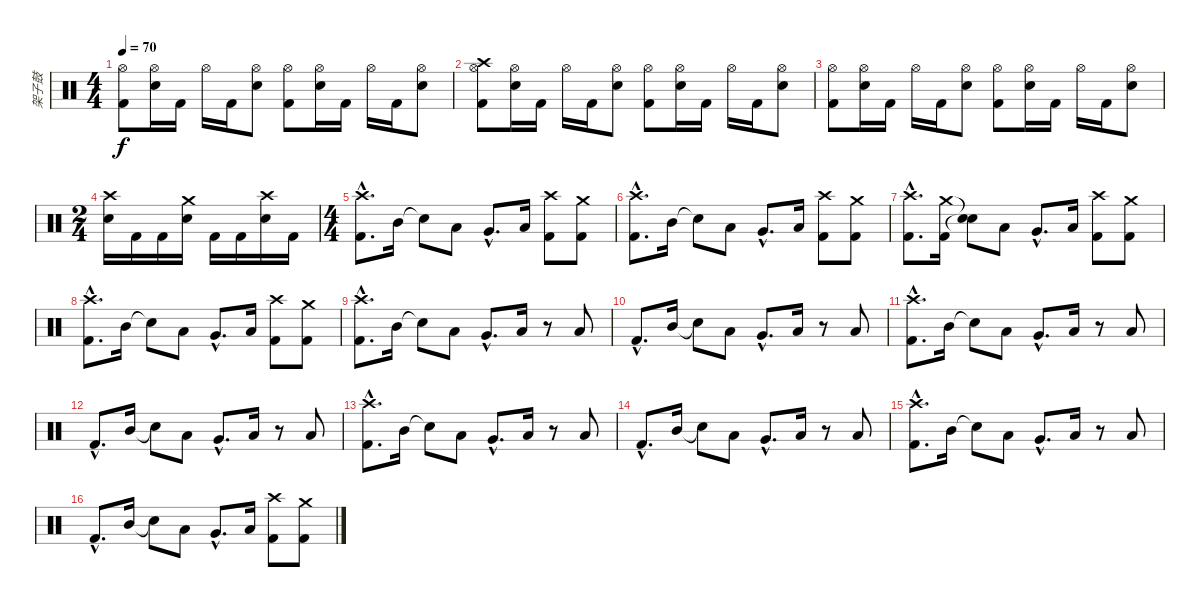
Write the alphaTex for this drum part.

\track ("架子鼓" "架子鼓") {instrument percussion}
\staff {score}
\articulation defaults
\ts (4 4)
\tempo 70
\clef neutral
\ks c
("Hi-Hat (open)" "Kick (hit) 2").8{dy f} ("Hi-Hat (open)" "Snare (hit) 2").16 "Kick (hit) 2".16 "Hi-Hat (open)".16 "Kick (hit) 2".16 ("Hi-Hat (open)" "Snare (hit) 2").8 ("Hi-Hat (open)" "Kick (hit) 2").8 ("Hi-Hat (open)" "Snare (hit) 2").16 "Kick (hit) 2".16 "Hi-Hat (open)".16 "Kick (hit) 2".16 ("Hi-Hat (open)" "Snare (hit) 2").8 |
("Crash high (hit)" "Hi-Hat (open)" "Kick (hit) 2").8 ("Hi-Hat (open)" "Snare (hit) 2").16 "Kick (hit) 2".16 "Hi-Hat (open)".16 "Kick (hit) 2".16 ("Hi-Hat (open)" "Snare (hit) 2").8 ("Hi-Hat (open)" "Kick (hit) 2").8 ("Hi-Hat (open)" "Snare (hit) 2").16 "Kick (hit) 2".16 "Hi-Hat (open)".16 "Kick (hit) 2".16 ("Hi-Hat (open)" "Snare (hit) 2").8 |
("Hi-Hat (open)" "Kick (hit) 2").8 ("Hi-Hat (open)" "Snare (hit) 2").16 "Kick (hit) 2".16 "Hi-Hat (open)".16 "Kick (hit) 2".16 ("Hi-Hat (open)" "Snare (hit) 2").8 ("Hi-Hat (open)" "Kick (hit) 2").8 ("Hi-Hat (open)" "Snare (hit) 2").16 "Kick (hit) 2".16 "Hi-Hat (open)".16 "Kick (hit) 2".16 ("Hi-Hat (open)" "Snare (hit) 2").8 |
\ts (2 4)
("Crash high (hit)" "Snare (hit) 2").16 "Kick (hit) 2".16 "Kick (hit) 2".16 ("Crash medium (hit)" "Snare (hit) 2").16 "Kick (hit) 2".16 "Kick (hit) 2".16 ("Crash high (hit)" "Snare (hit) 2").16 "Kick (hit) 2".16 |
\ts (4 4)
("Crash high (hit)"{hac} "Kick (hit) 2"{hac}).8{d} "Mid Tom (hit)".16 "Snare (hit)"{t}.8 "Low Tom (hit)".8 "Very Low Tom (hit)"{hac}.8{d} "Low Floor Tom (hit)".16 ("Crash high (hit)" "Kick (hit) 2").8 ("Crash medium (hit)" "Kick (hit) 2").8 |
("Crash high (hit)"{hac} "Kick (hit) 2"{hac}).8{d} "Mid Tom (hit)".16 "Snare (hit)"{t}.8 "Low Tom (hit)".8 "Very Low Tom (hit)"{hac}.8{d} "Low Floor Tom (hit)".16 ("Crash high (hit)" "Kick (hit) 2").8 ("Crash medium (hit)" "Kick (hit) 2").8 |
("Crash high (hit)"{hac} "Kick (hit) 2"{hac}).8{d} ("Crash medium (hit)" "Kick (hit) 2").16 ("Snare (hit)"{t} "Snare (hit)"{t}).8 "Low Tom (hit)".8 "Very Low Tom (hit)"{hac}.8{d} "Low Floor Tom (hit)".16 ("Crash high (hit)" "Kick (hit) 2").8 ("Crash medium (hit)" "Kick (hit) 2").8 |
("Crash high (hit)"{hac} "Kick (hit) 2"{hac}).8{d} "Mid Tom (hit)".16 "Snare (hit)"{t}.8 "Low Tom (hit)".8 "Very Low Tom (hit)"{hac}.8{d} "Low Floor Tom (hit)".16 ("Crash high (hit)" "Kick (hit) 2").8 ("Crash medium (hit)" "Kick (hit) 2").8 |
("Crash high (hit)"{hac} "Kick (hit) 2"{hac}).8{d} "Mid Tom (hit)".16 "Snare (hit)"{t}.8 "Low Tom (hit)".8 "Very Low Tom (hit)"{hac}.8{d} "Low Floor Tom (hit)".16 r.8 "Low Floor Tom (hit)".8 |
"Kick (hit) 2"{hac}.8{d} "Mid Tom (hit)".16 "Snare (hit)"{t}.8 "Low Tom (hit)".8 "Very Low Tom (hit)"{hac}.8{d} "Low Floor Tom (hit)".16 r.8 "Low Floor Tom (hit)".8 |
("Crash high (hit)"{hac} "Kick (hit) 2"{hac}).8{d} "Mid Tom (hit)".16 "Snare (hit)"{t}.8 "Low Tom (hit)".8 "Very Low Tom (hit)"{hac}.8{d} "Low Floor Tom (hit)".16 r.8 "Low Floor Tom (hit)".8 |
"Kick (hit) 2"{hac}.8{d} "Mid Tom (hit)".16 "Snare (hit)"{t}.8 "Low Tom (hit)".8 "Very Low Tom (hit)"{hac}.8{d} "Low Floor Tom (hit)".16 r.8 "Low Floor Tom (hit)".8 |
("Crash high (hit)"{hac} "Kick (hit) 2"{hac}).8{d} "Mid Tom (hit)".16 "Snare (hit)"{t}.8 "Low Tom (hit)".8 "Very Low Tom (hit)"{hac}.8{d} "Low Floor Tom (hit)".16 r.8 "Low Floor Tom (hit)".8 |
"Kick (hit) 2"{hac}.8{d} "Mid Tom (hit)".16 "Snare (hit)"{t}.8 "Low Tom (hit)".8 "Very Low Tom (hit)"{hac}.8{d} "Low Floor Tom (hit)".16 r.8 "Low Floor Tom (hit)".8 |
("Crash high (hit)"{hac} "Kick (hit) 2"{hac}).8{d} "Mid Tom (hit)".16 "Snare (hit)"{t}.8 "Low Tom (hit)".8 "Very Low Tom (hit)"{hac}.8{d} "Low Floor Tom (hit)".16 r.8 "Low Floor Tom (hit)".8 |
"Kick (hit) 2"{hac}.8{d} "Mid Tom (hit)".16 "Snare (hit)"{t}.8 "Low Tom (hit)".8 "Very Low Tom (hit)"{hac}.8{d} "Low Floor Tom (hit)".16 ("Crash high (hit)" "Kick (hit) 2").8 ("Crash medium (hit)" "Kick (hit) 2").8
